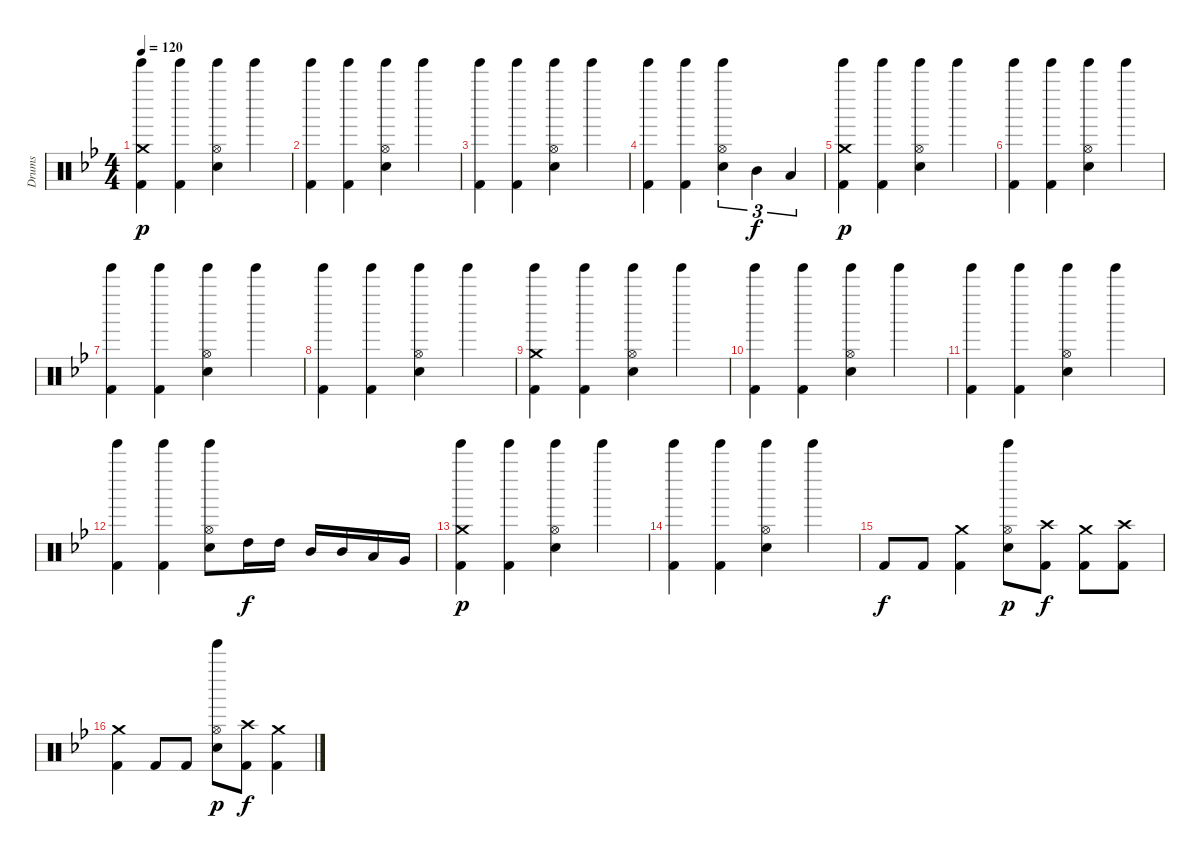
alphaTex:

\track ("Drums" "Drums") {instrument percussion}
\staff {score}
\articulation defaults
\ts (4 4)
\tempo 120
\clef neutral
\ks bb
("Tinkle Bell (hit)" "Crash medium (hit)" "Kick (hit) 2").4{dy p} ("Tinkle Bell (hit)" "Kick (hit) 2").4 ("Tinkle Bell (hit)" "Snare (hit) 2" "Hi-Hat (open)").4 "Tinkle Bell (hit)".4 |
("Tinkle Bell (hit)" "Kick (hit) 2").4 ("Tinkle Bell (hit)" "Kick (hit) 2").4 ("Tinkle Bell (hit)" "Snare (hit) 2" "Hi-Hat (open)").4 "Tinkle Bell (hit)".4 |
("Tinkle Bell (hit)" "Kick (hit) 2").4 ("Tinkle Bell (hit)" "Kick (hit) 2").4 ("Tinkle Bell (hit)" "Snare (hit) 2" "Hi-Hat (open)").4 "Tinkle Bell (hit)".4 |
("Tinkle Bell (hit)" "Kick (hit) 2").4 ("Tinkle Bell (hit)" "Kick (hit) 2").4 ("Tinkle Bell (hit)" "Snare (hit) 2" "Hi-Hat (open)").4{tu (3 2)} "Mid Tom (hit)".4{tu (3 2) dy f} "Low Tom (hit)".4{tu (3 2)} |
("Tinkle Bell (hit)" "Crash medium (hit)" "Kick (hit) 2").4{dy p} ("Tinkle Bell (hit)" "Kick (hit) 2").4 ("Tinkle Bell (hit)" "Snare (hit) 2" "Hi-Hat (open)").4 "Tinkle Bell (hit)".4 |
("Tinkle Bell (hit)" "Kick (hit) 2").4 ("Tinkle Bell (hit)" "Kick (hit) 2").4 ("Tinkle Bell (hit)" "Snare (hit) 2" "Hi-Hat (open)").4 "Tinkle Bell (hit)".4 |
("Tinkle Bell (hit)" "Kick (hit) 2").4 ("Tinkle Bell (hit)" "Kick (hit) 2").4 ("Tinkle Bell (hit)" "Snare (hit) 2" "Hi-Hat (open)").4 "Tinkle Bell (hit)".4 |
("Tinkle Bell (hit)" "Kick (hit) 2").4 ("Tinkle Bell (hit)" "Kick (hit) 2").4 ("Tinkle Bell (hit)" "Snare (hit) 2" "Hi-Hat (open)").4 "Tinkle Bell (hit)".4 |
("Tinkle Bell (hit)" "Crash medium (hit)" "Kick (hit) 2").4 ("Tinkle Bell (hit)" "Kick (hit) 2").4 ("Tinkle Bell (hit)" "Snare (hit) 2" "Hi-Hat (open)").4 "Tinkle Bell (hit)".4 |
("Tinkle Bell (hit)" "Kick (hit) 2").4 ("Tinkle Bell (hit)" "Kick (hit) 2").4 ("Tinkle Bell (hit)" "Snare (hit) 2" "Hi-Hat (open)").4 "Tinkle Bell (hit)".4 |
("Tinkle Bell (hit)" "Kick (hit) 2").4 ("Tinkle Bell (hit)" "Kick (hit) 2").4 ("Tinkle Bell (hit)" "Snare (hit) 2" "Hi-Hat (open)").4 "Tinkle Bell (hit)".4 |
("Tinkle Bell (hit)" "Kick (hit) 2").4 ("Tinkle Bell (hit)" "Kick (hit) 2").4 ("Tinkle Bell (hit)" "Snare (hit) 2" "Hi-Hat (open)").8 "High Tom (hit)".16{dy f} "High Tom (hit)".16 "Mid Tom (hit)".16 "Mid Tom (hit)".16 "Low Tom (hit)".16 "Very Low Tom (hit)".16 |
("Tinkle Bell (hit)" "Crash medium (hit)" "Kick (hit) 2").4{dy p} ("Tinkle Bell (hit)" "Kick (hit) 2").4 ("Tinkle Bell (hit)" "Snare (hit) 2" "Hi-Hat (open)").4 "Tinkle Bell (hit)".4 |
("Tinkle Bell (hit)" "Kick (hit) 2").4 ("Tinkle Bell (hit)" "Kick (hit) 2").4 ("Tinkle Bell (hit)" "Snare (hit) 2" "Hi-Hat (open)").4 "Tinkle Bell (hit)".4 |
"Kick (hit) 2".8{dy f} "Kick (hit) 2".8 ("Crash medium (hit)" "Kick (hit) 2").4 ("Tinkle Bell (hit)" "Snare (hit) 2" "Hi-Hat (open)").8{dy p} ("Crash high (hit)" "Kick (hit) 2").8{dy f} ("Crash medium (hit)" "Kick (hit) 2").8 ("Crash high (hit)" "Kick (hit) 2").8 |
("Crash medium (hit)" "Kick (hit) 2").4 "Kick (hit) 2".8 "Kick (hit) 2".8 ("Tinkle Bell (hit)" "Snare (hit) 2" "Hi-Hat (open)").8{dy p} ("Crash high (hit)" "Kick (hit) 2").8{dy f} ("Crash medium (hit)" "Kick (hit) 2").4
